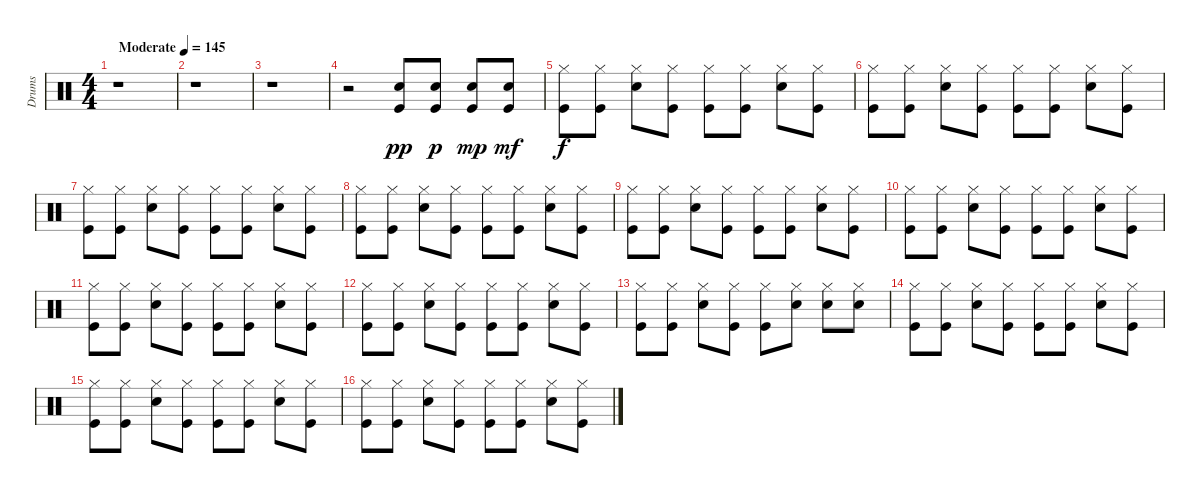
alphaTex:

\track ("Drums" "Drums") {instrument percussion}
\staff {score}
\articulation defaults
\ts (4 4)
\tempo (145 "Moderate")
\clef neutral
\ks c
r.1{dy pp} |
r.1 |
r.1 |
r.2 ("Kick (hit)" "Snare (hit) 2").8 ("Kick (hit)" "Snare (hit) 2").8{dy p} ("Kick (hit)" "Snare (hit) 2").8{dy mp} ("Kick (hit)" "Snare (hit) 2").8{dy mf} |
("Kick (hit)" "Hi-Hat (closed)").8{dy f} ("Kick (hit)" "Hi-Hat (closed)").8 ("Hi-Hat (closed)" "Snare (hit) 2").8 ("Kick (hit)" "Hi-Hat (closed)").8 ("Kick (hit)" "Hi-Hat (closed)").8 ("Kick (hit)" "Hi-Hat (closed)").8 ("Hi-Hat (closed)" "Snare (hit) 2").8 ("Kick (hit)" "Hi-Hat (closed)").8 |
("Kick (hit)" "Hi-Hat (closed)").8 ("Kick (hit)" "Hi-Hat (closed)").8 ("Hi-Hat (closed)" "Snare (hit) 2").8 ("Kick (hit)" "Hi-Hat (closed)").8 ("Kick (hit)" "Hi-Hat (closed)").8 ("Kick (hit)" "Hi-Hat (closed)").8 ("Hi-Hat (closed)" "Snare (hit) 2").8 ("Kick (hit)" "Hi-Hat (closed)").8 |
("Kick (hit)" "Hi-Hat (closed)").8 ("Kick (hit)" "Hi-Hat (closed)").8 ("Hi-Hat (closed)" "Snare (hit) 2").8 ("Kick (hit)" "Hi-Hat (closed)").8 ("Kick (hit)" "Hi-Hat (closed)").8 ("Kick (hit)" "Hi-Hat (closed)").8 ("Hi-Hat (closed)" "Snare (hit) 2").8 ("Kick (hit)" "Hi-Hat (closed)").8 |
("Kick (hit)" "Hi-Hat (closed)").8 ("Kick (hit)" "Hi-Hat (closed)").8 ("Hi-Hat (closed)" "Snare (hit) 2").8 ("Kick (hit)" "Hi-Hat (closed)").8 ("Kick (hit)" "Hi-Hat (closed)").8 ("Kick (hit)" "Hi-Hat (closed)").8 ("Hi-Hat (closed)" "Snare (hit) 2").8 ("Kick (hit)" "Hi-Hat (closed)").8 |
("Kick (hit)" "Hi-Hat (closed)").8 ("Kick (hit)" "Hi-Hat (closed)").8 ("Hi-Hat (closed)" "Snare (hit) 2").8 ("Kick (hit)" "Hi-Hat (closed)").8 ("Kick (hit)" "Hi-Hat (closed)").8 ("Kick (hit)" "Hi-Hat (closed)").8 ("Hi-Hat (closed)" "Snare (hit) 2").8 ("Kick (hit)" "Hi-Hat (closed)").8 |
("Kick (hit)" "Hi-Hat (closed)").8 ("Kick (hit)" "Hi-Hat (closed)").8 ("Hi-Hat (closed)" "Snare (hit) 2").8 ("Kick (hit)" "Hi-Hat (closed)").8 ("Kick (hit)" "Hi-Hat (closed)").8 ("Kick (hit)" "Hi-Hat (closed)").8 ("Hi-Hat (closed)" "Snare (hit) 2").8 ("Kick (hit)" "Hi-Hat (closed)").8 |
("Kick (hit)" "Hi-Hat (closed)").8 ("Kick (hit)" "Hi-Hat (closed)").8 ("Hi-Hat (closed)" "Snare (hit) 2").8 ("Kick (hit)" "Hi-Hat (closed)").8 ("Kick (hit)" "Hi-Hat (closed)").8 ("Kick (hit)" "Hi-Hat (closed)").8 ("Hi-Hat (closed)" "Snare (hit) 2").8 ("Kick (hit)" "Hi-Hat (closed)").8 |
("Kick (hit)" "Hi-Hat (closed)").8 ("Kick (hit)" "Hi-Hat (closed)").8 ("Hi-Hat (closed)" "Snare (hit) 2").8 ("Kick (hit)" "Hi-Hat (closed)").8 ("Kick (hit)" "Hi-Hat (closed)").8 ("Kick (hit)" "Hi-Hat (closed)").8 ("Hi-Hat (closed)" "Snare (hit) 2").8 ("Kick (hit)" "Hi-Hat (closed)").8 |
("Kick (hit)" "Hi-Hat (closed)").8 ("Kick (hit)" "Hi-Hat (closed)").8 ("Hi-Hat (closed)" "Snare (hit) 2").8 ("Kick (hit)" "Hi-Hat (closed)").8 ("Kick (hit)" "Hi-Hat (closed)").8 ("Hi-Hat (closed)" "Snare (hit) 2").8 ("Hi-Hat (closed)" "Snare (hit) 2").8 ("Hi-Hat (closed)" "Snare (hit) 2").8 |
("Kick (hit)" "Hi-Hat (closed)").8 ("Kick (hit)" "Hi-Hat (closed)").8 ("Hi-Hat (closed)" "Snare (hit) 2").8 ("Kick (hit)" "Hi-Hat (closed)").8 ("Kick (hit)" "Hi-Hat (closed)").8 ("Kick (hit)" "Hi-Hat (closed)").8 ("Hi-Hat (closed)" "Snare (hit) 2").8 ("Kick (hit)" "Hi-Hat (closed)").8 |
("Kick (hit)" "Hi-Hat (closed)").8 ("Kick (hit)" "Hi-Hat (closed)").8 ("Hi-Hat (closed)" "Snare (hit) 2").8 ("Kick (hit)" "Hi-Hat (closed)").8 ("Kick (hit)" "Hi-Hat (closed)").8 ("Kick (hit)" "Hi-Hat (closed)").8 ("Hi-Hat (closed)" "Snare (hit) 2").8 ("Kick (hit)" "Hi-Hat (closed)").8 |
("Kick (hit)" "Hi-Hat (closed)").8 ("Kick (hit)" "Hi-Hat (closed)").8 ("Hi-Hat (closed)" "Snare (hit) 2").8 ("Kick (hit)" "Hi-Hat (closed)").8 ("Kick (hit)" "Hi-Hat (closed)").8 ("Kick (hit)" "Hi-Hat (closed)").8 ("Hi-Hat (closed)" "Snare (hit) 2").8 ("Kick (hit)" "Hi-Hat (closed)").8
